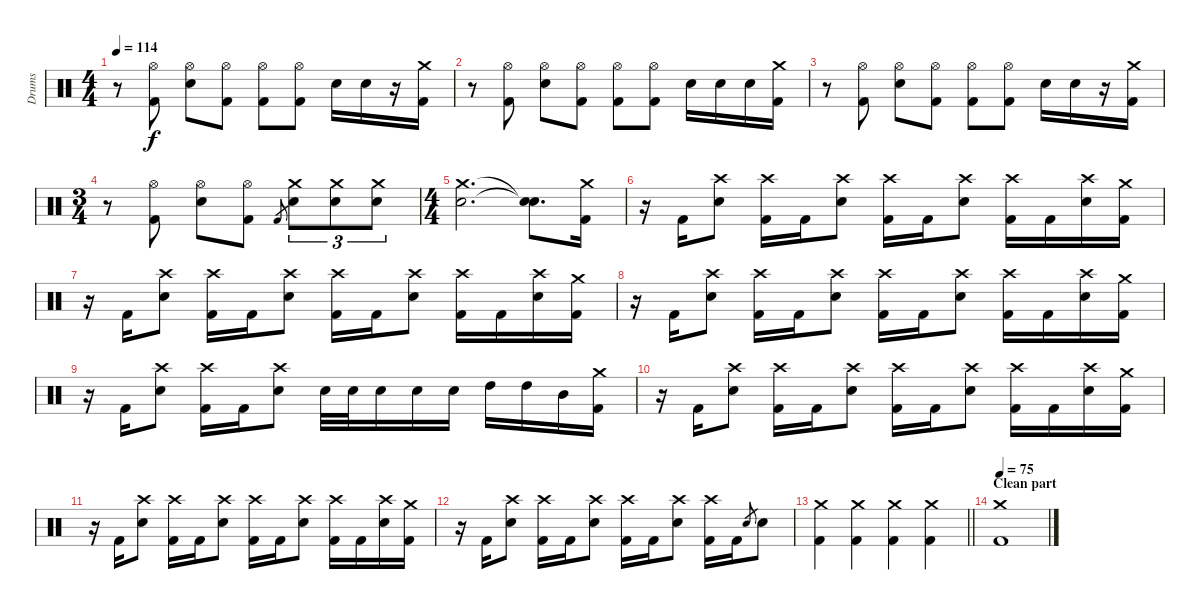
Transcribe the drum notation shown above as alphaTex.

\track ("Drums" "Drums") {instrument percussion}
\staff {score}
\articulation defaults
\ts (4 4)
\tempo 114
\clef neutral
\ks c
r.8{dy f} ("Hi-Hat (open)" "Kick (hit) 2").8 ("Hi-Hat (open)" "Electric Snare (hit)").8 ("Hi-Hat (open)" "Kick (hit) 2").8 ("Hi-Hat (open)" "Kick (hit) 2").8 ("Hi-Hat (open)" "Kick (hit) 2").8 "Electric Snare (hit)".16 "Electric Snare (hit)".16 r.16 ("Crash medium (hit)" "Kick (hit) 2").16 |
r.8 ("Hi-Hat (open)" "Kick (hit) 2").8 ("Hi-Hat (open)" "Electric Snare (hit)").8 ("Hi-Hat (open)" "Kick (hit) 2").8 ("Hi-Hat (open)" "Kick (hit) 2").8 ("Hi-Hat (open)" "Kick (hit) 2").8 "Electric Snare (hit)".16 "Electric Snare (hit)".16 "Electric Snare (hit)".16 ("Crash medium (hit)" "Kick (hit) 2").16 |
r.8 ("Hi-Hat (open)" "Kick (hit) 2").8 ("Hi-Hat (open)" "Electric Snare (hit)").8 ("Hi-Hat (open)" "Kick (hit) 2").8 ("Hi-Hat (open)" "Kick (hit) 2").8 ("Hi-Hat (open)" "Kick (hit) 2").8 "Electric Snare (hit)".16 "Electric Snare (hit)".16 r.16 ("Crash medium (hit)" "Kick (hit) 2").16 |
\ts (3 4)
r.8 ("Hi-Hat (open)" "Kick (hit) 2").8 ("Hi-Hat (open)" "Electric Snare (hit)").8 ("Hi-Hat (open)" "Kick (hit) 2").8 "Kick (hit) 2".8{gr} ("Crash medium (hit)" "Electric Snare (hit)").8{tu (3 2)} ("Crash medium (hit)" "Electric Snare (hit)").8{tu (3 2)} ("Crash medium (hit)" "Electric Snare (hit)").8{tu (3 2)} |
\ts (4 4)
("Crash medium (hit)" "Electric Snare (hit)").2{d} ("Snare (hit)"{t} "Snare (hit)"{t}).8{d} ("Crash medium (hit)" "Kick (hit) 2").16 |
r.16 "Kick (hit) 2".16 ("Crash high (hit)" "Electric Snare (hit)").8 ("Crash high (hit)" "Kick (hit) 2").16 "Kick (hit) 2".16 ("Crash high (hit)" "Electric Snare (hit)").8 ("Crash high (hit)" "Kick (hit) 2").16 "Kick (hit) 2".16 ("Crash high (hit)" "Electric Snare (hit)").8 ("Crash high (hit)" "Kick (hit) 2").16 "Kick (hit) 2".16 ("Crash high (hit)" "Electric Snare (hit)").16 ("Crash medium (hit)" "Kick (hit) 2").16 |
r.16 "Kick (hit) 2".16 ("Crash high (hit)" "Electric Snare (hit)").8 ("Crash high (hit)" "Kick (hit) 2").16 "Kick (hit) 2".16 ("Crash high (hit)" "Electric Snare (hit)").8 ("Crash high (hit)" "Kick (hit) 2").16 "Kick (hit) 2".16 ("Crash high (hit)" "Electric Snare (hit)").8 ("Crash high (hit)" "Kick (hit) 2").16 "Kick (hit) 2".16 ("Crash high (hit)" "Electric Snare (hit)").16 ("Crash medium (hit)" "Kick (hit) 2").16 |
r.16 "Kick (hit) 2".16 ("Crash high (hit)" "Electric Snare (hit)").8 ("Crash high (hit)" "Kick (hit) 2").16 "Kick (hit) 2".16 ("Crash high (hit)" "Electric Snare (hit)").8 ("Crash high (hit)" "Kick (hit) 2").16 "Kick (hit) 2".16 ("Crash high (hit)" "Electric Snare (hit)").8 ("Crash high (hit)" "Kick (hit) 2").16 "Kick (hit) 2".16 ("Crash high (hit)" "Electric Snare (hit)").16 ("Crash medium (hit)" "Kick (hit) 2").16 |
r.16 "Kick (hit) 2".16 ("Crash high (hit)" "Electric Snare (hit)").8 ("Crash high (hit)" "Kick (hit) 2").16 "Kick (hit) 2".16 ("Crash high (hit)" "Electric Snare (hit)").8 "Electric Snare (hit)".32 "Electric Snare (hit)".32 "Electric Snare (hit)".16 "Electric Snare (hit)".16 "Electric Snare (hit)".16 "High Tom (hit)".16 "High Tom (hit)".16 "Mid Tom (hit)".16 ("Crash medium (hit)" "Kick (hit) 2").16 |
r.16 "Kick (hit) 2".16 ("Crash high (hit)" "Electric Snare (hit)").8 ("Crash high (hit)" "Kick (hit) 2").16 "Kick (hit) 2".16 ("Crash high (hit)" "Electric Snare (hit)").8 ("Crash high (hit)" "Kick (hit) 2").16 "Kick (hit) 2".16 ("Crash high (hit)" "Electric Snare (hit)").8 ("Crash high (hit)" "Kick (hit) 2").16 "Kick (hit) 2".16 ("Crash high (hit)" "Electric Snare (hit)").16 ("Crash medium (hit)" "Kick (hit) 2").16 |
r.16 "Kick (hit) 2".16 ("Crash high (hit)" "Electric Snare (hit)").8 ("Crash high (hit)" "Kick (hit) 2").16 "Kick (hit) 2".16 ("Crash high (hit)" "Electric Snare (hit)").8 ("Crash high (hit)" "Kick (hit) 2").16 "Kick (hit) 2".16 ("Crash high (hit)" "Electric Snare (hit)").8 ("Crash high (hit)" "Kick (hit) 2").16 "Kick (hit) 2".16 ("Crash high (hit)" "Electric Snare (hit)").16 ("Crash medium (hit)" "Kick (hit) 2").16 |
r.16 "Kick (hit) 2".16 ("Crash high (hit)" "Electric Snare (hit)").8 ("Crash high (hit)" "Kick (hit) 2").16 "Kick (hit) 2".16 ("Crash high (hit)" "Electric Snare (hit)").8 ("Crash high (hit)" "Kick (hit) 2").16 "Kick (hit) 2".16 ("Crash high (hit)" "Electric Snare (hit)").8 ("Crash high (hit)" "Kick (hit) 2").16 "Kick (hit) 2".16 "Electric Snare (hit)".8{gr} "Electric Snare (hit)".8 |
\barLineRight lightlight
("Crash medium (hit)" "Kick (hit) 2").4 ("Crash medium (hit)" "Kick (hit) 2").4 ("Crash medium (hit)" "Kick (hit) 2").4 ("Crash medium (hit)" "Kick (hit) 2").4 |
\section ("" "Clean part")
\tempo 75
("Crash medium (hit)" "Kick (hit) 2").1
